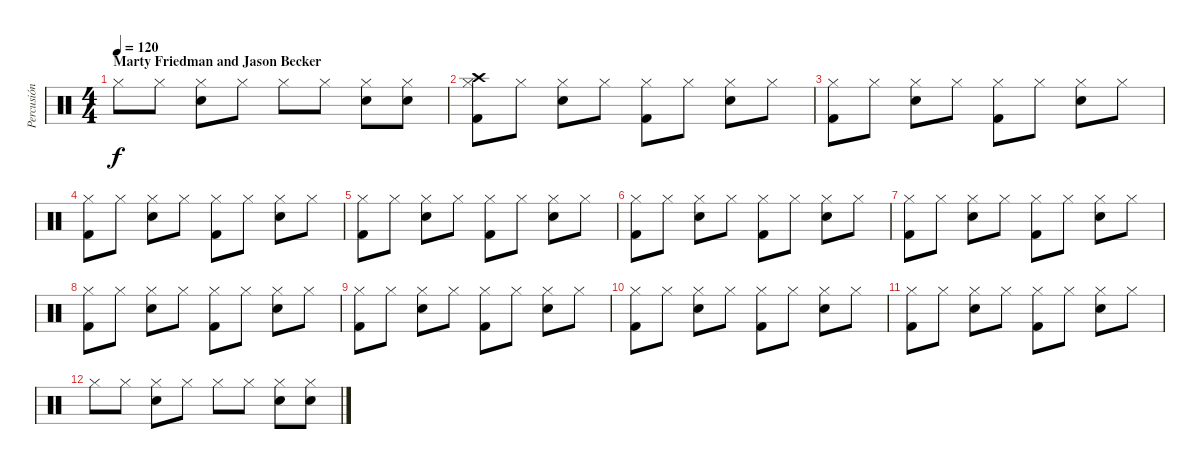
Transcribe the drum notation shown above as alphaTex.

\track ("Percusión" "Percusión") {instrument percussion}
\staff {score}
\articulation defaults
\ts (4 4)
\section ("" "Marty Friedman and Jason Becker")
\tempo 120
\clef neutral
\ks c "Hi-Hat (closed)".8{dy f} "Hi-Hat (closed)".8
("Snare (hit) 2" "Hi-Hat (closed)").8 "Hi-Hat (closed)".8 "Hi-Hat (closed)".8 "Hi-Hat (closed)".8 ("Snare (hit) 2" "Hi-Hat (closed)").8 ("Snare (hit) 2" "Hi-Hat (closed)").8 |
("Kick (hit) 2" "Hi-Hat (closed)" "Crash high (hit)").8 "Hi-Hat (closed)".8 ("Snare (hit) 2" "Hi-Hat (closed)").8 "Hi-Hat (closed)".8 ("Kick (hit) 2" "Hi-Hat (closed)").8 "Hi-Hat (closed)".8 ("Snare (hit) 2" "Hi-Hat (closed)").8 "Hi-Hat (closed)".8 |
("Kick (hit) 2" "Hi-Hat (closed)").8 "Hi-Hat (closed)".8 ("Snare (hit) 2" "Hi-Hat (closed)").8 "Hi-Hat (closed)".8 ("Kick (hit) 2" "Hi-Hat (closed)").8 "Hi-Hat (closed)".8 ("Snare (hit) 2" "Hi-Hat (closed)").8 "Hi-Hat (closed)".8 |
("Kick (hit) 2" "Hi-Hat (closed)").8 "Hi-Hat (closed)".8 ("Snare (hit) 2" "Hi-Hat (closed)").8 "Hi-Hat (closed)".8 ("Kick (hit) 2" "Hi-Hat (closed)").8 "Hi-Hat (closed)".8 ("Snare (hit) 2" "Hi-Hat (closed)").8 "Hi-Hat (closed)".8 |
("Kick (hit) 2" "Hi-Hat (closed)").8 "Hi-Hat (closed)".8 ("Snare (hit) 2" "Hi-Hat (closed)").8 "Hi-Hat (closed)".8 ("Kick (hit) 2" "Hi-Hat (closed)").8 "Hi-Hat (closed)".8 ("Snare (hit) 2" "Hi-Hat (closed)").8 "Hi-Hat (closed)".8 |
("Kick (hit) 2" "Hi-Hat (closed)").8 "Hi-Hat (closed)".8 ("Snare (hit) 2" "Hi-Hat (closed)").8 "Hi-Hat (closed)".8 ("Kick (hit) 2" "Hi-Hat (closed)").8 "Hi-Hat (closed)".8 ("Snare (hit) 2" "Hi-Hat (closed)").8 "Hi-Hat (closed)".8 |
("Kick (hit) 2" "Hi-Hat (closed)").8 "Hi-Hat (closed)".8 ("Snare (hit) 2" "Hi-Hat (closed)").8 "Hi-Hat (closed)".8 ("Kick (hit) 2" "Hi-Hat (closed)").8 "Hi-Hat (closed)".8 ("Snare (hit) 2" "Hi-Hat (closed)").8 "Hi-Hat (closed)".8 |
("Kick (hit) 2" "Hi-Hat (closed)").8 "Hi-Hat (closed)".8 ("Snare (hit) 2" "Hi-Hat (closed)").8 "Hi-Hat (closed)".8 ("Kick (hit) 2" "Hi-Hat (closed)").8 "Hi-Hat (closed)".8 ("Snare (hit) 2" "Hi-Hat (closed)").8 "Hi-Hat (closed)".8 |
("Kick (hit) 2" "Hi-Hat (closed)").8 "Hi-Hat (closed)".8 ("Snare (hit) 2" "Hi-Hat (closed)").8 "Hi-Hat (closed)".8 ("Kick (hit) 2" "Hi-Hat (closed)").8 "Hi-Hat (closed)".8 ("Snare (hit) 2" "Hi-Hat (closed)").8 "Hi-Hat (closed)".8 |
("Kick (hit) 2" "Hi-Hat (closed)").8 "Hi-Hat (closed)".8 ("Snare (hit) 2" "Hi-Hat (closed)").8 "Hi-Hat (closed)".8 ("Kick (hit) 2" "Hi-Hat (closed)").8 "Hi-Hat (closed)".8 ("Snare (hit) 2" "Hi-Hat (closed)").8 "Hi-Hat (closed)".8 |
("Kick (hit) 2" "Hi-Hat (closed)").8 "Hi-Hat (closed)".8 ("Snare (hit) 2" "Hi-Hat (closed)").8 "Hi-Hat (closed)".8 ("Kick (hit) 2" "Hi-Hat (closed)").8 "Hi-Hat (closed)".8 ("Snare (hit) 2" "Hi-Hat (closed)").8 "Hi-Hat (closed)".8 |
"Hi-Hat (closed)".8 "Hi-Hat (closed)".8 ("Snare (hit) 2" "Hi-Hat (closed)").8 "Hi-Hat (closed)".8 "Hi-Hat (closed)".8 "Hi-Hat (closed)".8 ("Snare (hit) 2" "Hi-Hat (closed)").8 ("Snare (hit) 2" "Hi-Hat (closed)").8
